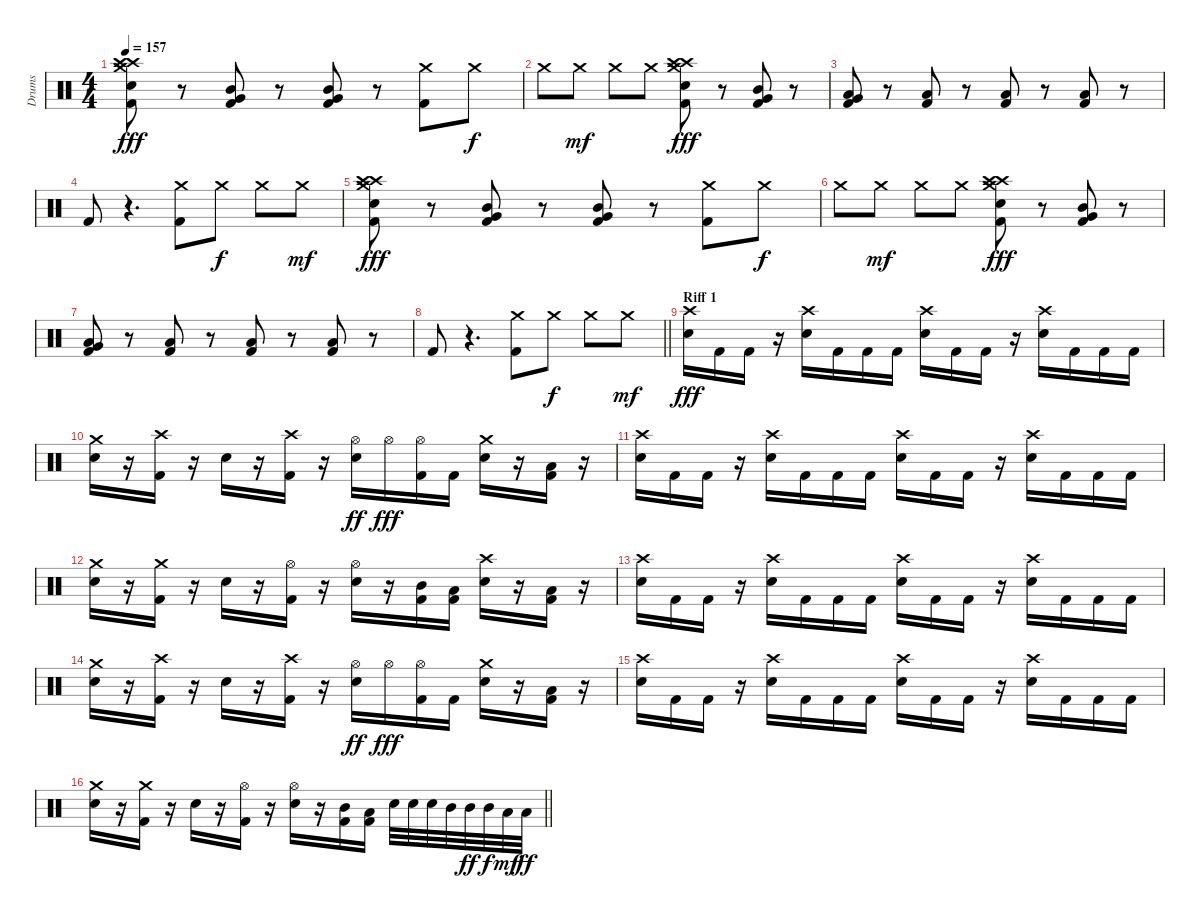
\track ("Drums" "Drums") {instrument percussion}
\staff {score}
\articulation defaults
\ts (4 4)
\tempo 157
\clef neutral
\ks c
("Kick (hit) 2" "Snare (hit) 2" "Crash high (hit)" "Crash high (hit)" "Crash medium (hit)").8{dy fff} r.8 ("Kick (hit) 2" "Very Low Tom (hit)" "Mid Tom (hit)").8 r.8 ("Kick (hit) 2" "Very Low Tom (hit)" "Mid Tom (hit)").8 r.8 ("Kick (hit) 2" "Crash medium (hit)").8 "Crash medium (hit)".8{dy f} |
"Crash medium (hit)".8 "Crash medium (hit)".8{dy mf} "Crash medium (hit)".8 "Crash medium (hit)".8 ("Kick (hit) 2" "Snare (hit) 2" "Crash high (hit)" "Crash high (hit)" "Crash medium (hit)").8{dy fff} r.8 ("Kick (hit) 2" "Very Low Tom (hit)" "Mid Tom (hit)").8 r.8 |
("Kick (hit) 2" "Very Low Tom (hit)" "Low Tom (hit)").8 r.8 ("Kick (hit) 2" "Low Tom (hit)").8 r.8 ("Kick (hit) 2" "Low Tom (hit)").8 r.8 ("Kick (hit) 2" "Low Tom (hit)").8 r.8 |
"Kick (hit) 2".8 r.4{d} ("Kick (hit) 2" "Crash medium (hit)").8 "Crash medium (hit)".8{dy f} "Crash medium (hit)".8 "Crash medium (hit)".8{dy mf} |
("Kick (hit) 2" "Snare (hit) 2" "Crash high (hit)" "Crash high (hit)" "Crash medium (hit)").8{dy fff} r.8 ("Kick (hit) 2" "Very Low Tom (hit)" "Mid Tom (hit)").8 r.8 ("Kick (hit) 2" "Very Low Tom (hit)" "Mid Tom (hit)").8 r.8 ("Kick (hit) 2" "Crash medium (hit)").8 "Crash medium (hit)".8{dy f} |
"Crash medium (hit)".8 "Crash medium (hit)".8{dy mf} "Crash medium (hit)".8 "Crash medium (hit)".8 ("Kick (hit) 2" "Snare (hit) 2" "Crash high (hit)" "Crash high (hit)" "Crash medium (hit)").8{dy fff} r.8 ("Kick (hit) 2" "Very Low Tom (hit)" "Mid Tom (hit)").8 r.8 |
("Kick (hit) 2" "Very Low Tom (hit)" "Low Tom (hit)").8 r.8 ("Kick (hit) 2" "Low Tom (hit)").8 r.8 ("Kick (hit) 2" "Low Tom (hit)").8 r.8 ("Kick (hit) 2" "Low Tom (hit)").8 r.8 |
\barLineRight lightlight "Kick (hit) 2".8
r.4{d} ("Kick (hit) 2" "Crash medium (hit)").8 "Crash medium (hit)".8{dy f} "Crash medium (hit)".8 "Crash medium (hit)".8{dy mf} |
\section ("" "Riff 1")
("Snare (hit) 2" "Crash high (hit)").16{dy fff} "Kick (hit) 2".16 "Kick (hit) 2".16 r.16 ("Snare (hit) 2" "Crash high (hit)").16 "Kick (hit) 2".16 "Kick (hit) 2".16 "Kick (hit) 2".16 ("Snare (hit) 2" "Crash high (hit)").16 "Kick (hit) 2".16 "Kick (hit) 2".16 r.16 ("Snare (hit) 2" "Crash high (hit)").16 "Kick (hit) 2".16 "Kick (hit) 2".16 "Kick (hit) 2".16 |
("Snare (hit) 2" "Crash medium (hit)").16 r.16 ("Kick (hit) 2" "Crash high (hit)").16 r.16 "Snare (hit) 2".16 r.16 ("Kick (hit) 2" "Crash high (hit)").16 r.16 ("Snare (hit) 2" "Hi-Hat (open)").16{dy ff} "Hi-Hat (open)".16{dy fff} ("Kick (hit) 2" "Hi-Hat (open)").16 "Kick (hit) 2".16 ("Snare (hit) 2" "Crash medium (hit)").16 r.16 ("Kick (hit) 2" "Low Tom (hit)").16 r.16 |
("Snare (hit) 2" "Crash high (hit)").16 "Kick (hit) 2".16 "Kick (hit) 2".16 r.16 ("Snare (hit) 2" "Crash high (hit)").16 "Kick (hit) 2".16 "Kick (hit) 2".16 "Kick (hit) 2".16 ("Snare (hit) 2" "Crash high (hit)").16 "Kick (hit) 2".16 "Kick (hit) 2".16 r.16 ("Snare (hit) 2" "Crash high (hit)").16 "Kick (hit) 2".16 "Kick (hit) 2".16 "Kick (hit) 2".16 |
("Snare (hit) 2" "Crash medium (hit)").16 r.16 ("Kick (hit) 2" "Crash medium (hit)").16 r.16 "Snare (hit) 2".16 r.16 ("Kick (hit) 2" "Hi-Hat (open)").16 r.16 ("Snare (hit) 2" "Hi-Hat (open)").16 r.16 ("Kick (hit) 2" "Mid Tom (hit)").16 ("Kick (hit) 2" "Low Tom (hit)").16 ("Snare (hit) 2" "Crash high (hit)").16 r.16 ("Kick (hit) 2" "Low Tom (hit)").16 r.16 |
("Snare (hit) 2" "Crash high (hit)").16 "Kick (hit) 2".16 "Kick (hit) 2".16 r.16 ("Snare (hit) 2" "Crash high (hit)").16 "Kick (hit) 2".16 "Kick (hit) 2".16 "Kick (hit) 2".16 ("Snare (hit) 2" "Crash high (hit)").16 "Kick (hit) 2".16 "Kick (hit) 2".16 r.16 ("Snare (hit) 2" "Crash high (hit)").16 "Kick (hit) 2".16 "Kick (hit) 2".16 "Kick (hit) 2".16 |
("Snare (hit) 2" "Crash medium (hit)").16 r.16 ("Kick (hit) 2" "Crash high (hit)").16 r.16 "Snare (hit) 2".16 r.16 ("Kick (hit) 2" "Crash high (hit)").16 r.16 ("Snare (hit) 2" "Hi-Hat (open)").16{dy ff} "Hi-Hat (open)".16{dy fff} ("Kick (hit) 2" "Hi-Hat (open)").16 "Kick (hit) 2".16 ("Snare (hit) 2" "Crash medium (hit)").16 r.16 ("Kick (hit) 2" "Low Tom (hit)").16 r.16 |
("Snare (hit) 2" "Crash high (hit)").16 "Kick (hit) 2".16 "Kick (hit) 2".16 r.16 ("Snare (hit) 2" "Crash high (hit)").16 "Kick (hit) 2".16 "Kick (hit) 2".16 "Kick (hit) 2".16 ("Snare (hit) 2" "Crash high (hit)").16 "Kick (hit) 2".16 "Kick (hit) 2".16 r.16 ("Snare (hit) 2" "Crash high (hit)").16 "Kick (hit) 2".16 "Kick (hit) 2".16 "Kick (hit) 2".16 |
\barLineRight lightlight
("Snare (hit) 2" "Crash medium (hit)").16 r.16 ("Kick (hit) 2" "Crash medium (hit)").16 r.16 "Snare (hit) 2".16 r.16 ("Kick (hit) 2" "Hi-Hat (open)").16 r.16 ("Snare (hit) 2" "Hi-Hat (open)").16 r.16 ("Kick (hit) 2" "Mid Tom (hit)").16 ("Kick (hit) 2" "Low Tom (hit)").16 "Snare (hit) 2".32 "Snare (hit) 2".32 "Snare (hit) 2".32 "Mid Tom (hit)".32 "Mid Tom (hit)".32{dy ff} "Mid Tom (hit)".32{dy f} "Low Tom (hit)".32{dy mf} "Low Tom (hit)".32{dy ff}
